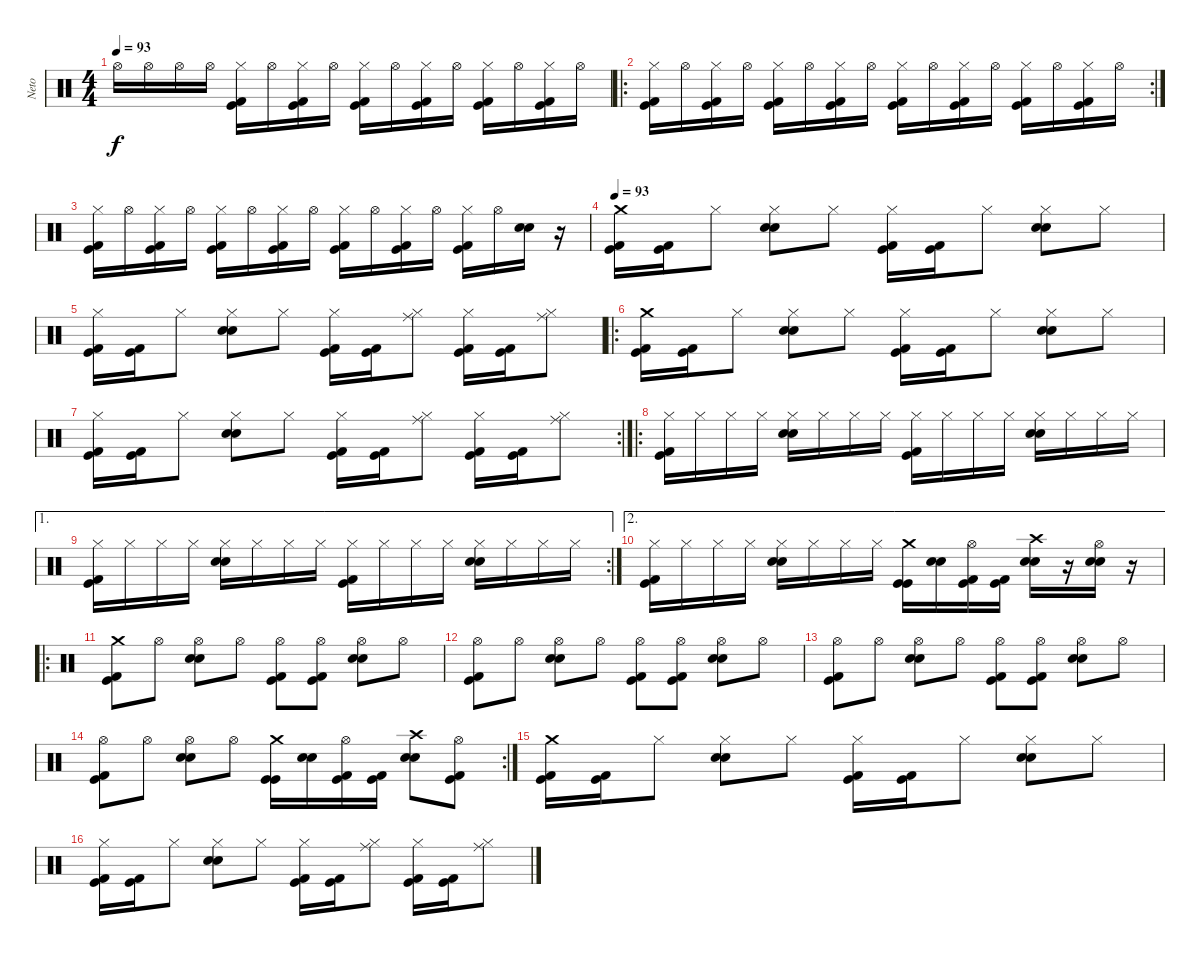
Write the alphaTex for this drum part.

\track ("Neto" "Neto") {instrument percussion}
\staff {score}
\articulation defaults
\ts (4 4)
\tempo 93
\tempo 77
\tempo 93
\clef neutral
\ks c "Hi-Hat (open)".16{dy f} "Hi-Hat (open)".16 "Hi-Hat (open)".16 "Hi-Hat (open)".16
("Hi-Hat (closed)" "Kick (hit)" "Kick (hit) 2").16 "Hi-Hat (open)".16 ("Hi-Hat (closed)" "Kick (hit)" "Kick (hit) 2").16 "Hi-Hat (open)".16 ("Hi-Hat (closed)" "Kick (hit)" "Kick (hit) 2").16 "Hi-Hat (open)".16 ("Hi-Hat (closed)" "Kick (hit)" "Kick (hit) 2").16 "Hi-Hat (open)".16 ("Hi-Hat (closed)" "Kick (hit)" "Kick (hit) 2").16 "Hi-Hat (open)".16 ("Hi-Hat (closed)" "Kick (hit)" "Kick (hit) 2").16 "Hi-Hat (open)".16 |
\ro
\rc 2
("Hi-Hat (closed)" "Kick (hit)" "Kick (hit) 2").16 "Hi-Hat (open)".16 ("Hi-Hat (closed)" "Kick (hit)" "Kick (hit) 2").16 "Hi-Hat (open)".16 ("Hi-Hat (closed)" "Kick (hit)" "Kick (hit) 2").16 "Hi-Hat (open)".16 ("Hi-Hat (closed)" "Kick (hit)" "Kick (hit) 2").16 "Hi-Hat (open)".16 ("Hi-Hat (closed)" "Kick (hit)" "Kick (hit) 2").16 "Hi-Hat (open)".16 ("Hi-Hat (closed)" "Kick (hit)" "Kick (hit) 2").16 "Hi-Hat (open)".16 ("Hi-Hat (closed)" "Kick (hit)" "Kick (hit) 2").16 "Hi-Hat (open)".16 ("Hi-Hat (closed)" "Kick (hit)" "Kick (hit) 2").16 "Hi-Hat (open)".16 |
("Hi-Hat (closed)" "Kick (hit)" "Kick (hit) 2").16 "Hi-Hat (open)".16 ("Hi-Hat (closed)" "Kick (hit)" "Kick (hit) 2").16 "Hi-Hat (open)".16 ("Hi-Hat (closed)" "Kick (hit)" "Kick (hit) 2").16 "Hi-Hat (open)".16 ("Hi-Hat (closed)" "Kick (hit)" "Kick (hit) 2").16 "Hi-Hat (open)".16 ("Hi-Hat (closed)" "Kick (hit)" "Kick (hit) 2").16 "Hi-Hat (open)".16 ("Hi-Hat (closed)" "Kick (hit)" "Kick (hit) 2").16 "Hi-Hat (open)".16 ("Hi-Hat (closed)" "Kick (hit)" "Kick (hit) 2").16 "Hi-Hat (open)".16 ("Snare (hit) 2" "Snare (hit) 2").16 r.16 |
\tempo 93
("Crash medium (hit)" "Kick (hit)" "Kick (hit) 2").16 ("Kick (hit)" "Kick (hit) 2").16 "Hi-Hat (closed)".8 ("Hi-Hat (closed)" "Snare (hit) 2" "Snare (hit) 2").8 "Hi-Hat (closed)".8 ("Hi-Hat (closed)" "Kick (hit)" "Kick (hit) 2").16 ("Kick (hit)" "Kick (hit) 2").16 "Hi-Hat (closed)".8 ("Hi-Hat (closed)" "Snare (hit) 2" "Snare (hit) 2").8 "Hi-Hat (closed)".8 |
("Hi-Hat (closed)" "Kick (hit)" "Kick (hit) 2").16 ("Kick (hit)" "Kick (hit) 2").16 "Hi-Hat (closed)".8 ("Hi-Hat (closed)" "Snare (hit) 2" "Snare (hit) 2").8 "Hi-Hat (closed)".8 ("Hi-Hat (closed)" "Kick (hit)" "Kick (hit) 2").16 ("Kick (hit)" "Kick (hit) 2").16 ("Hi-Hat (closed)" "Ride (middle)").8 ("Hi-Hat (closed)" "Kick (hit)" "Kick (hit) 2").16 ("Kick (hit)" "Kick (hit) 2").16 ("Hi-Hat (closed)" "Ride (middle)").8 |
\ro
("Crash medium (hit)" "Kick (hit)" "Kick (hit) 2").16 ("Kick (hit)" "Kick (hit) 2").16 "Hi-Hat (closed)".8 ("Hi-Hat (closed)" "Snare (hit) 2" "Snare (hit) 2").8 "Hi-Hat (closed)".8 ("Hi-Hat (closed)" "Kick (hit)" "Kick (hit) 2").16 ("Kick (hit)" "Kick (hit) 2").16 "Hi-Hat (closed)".8 ("Hi-Hat (closed)" "Snare (hit) 2" "Snare (hit) 2").8 "Hi-Hat (closed)".8 |
\rc 2
("Hi-Hat (closed)" "Kick (hit)" "Kick (hit) 2").16 ("Kick (hit)" "Kick (hit) 2").16 "Hi-Hat (closed)".8 ("Hi-Hat (closed)" "Snare (hit) 2" "Snare (hit) 2").8 "Hi-Hat (closed)".8 ("Hi-Hat (closed)" "Kick (hit)" "Kick (hit) 2").16 ("Kick (hit)" "Kick (hit) 2").16 ("Hi-Hat (closed)" "Ride (middle)").8 ("Hi-Hat (closed)" "Kick (hit)" "Kick (hit) 2").16 ("Kick (hit)" "Kick (hit) 2").16 ("Hi-Hat (closed)" "Ride (middle)").8 |
\ro
("Hi-Hat (closed)" "Kick (hit)" "Kick (hit) 2").16 "Hi-Hat (closed)".16 "Hi-Hat (closed)".16 "Hi-Hat (closed)".16 ("Hi-Hat (closed)" "Snare (hit) 2" "Snare (hit) 2").16 "Hi-Hat (closed)".16 "Hi-Hat (closed)".16 "Hi-Hat (closed)".16 ("Hi-Hat (closed)" "Kick (hit)" "Kick (hit) 2").16 "Hi-Hat (closed)".16 "Hi-Hat (closed)".16 "Hi-Hat (closed)".16 ("Hi-Hat (closed)" "Snare (hit) 2" "Snare (hit) 2").16 "Hi-Hat (closed)".16 "Hi-Hat (closed)".16 "Hi-Hat (closed)".16 |
\ae 1
\rc 2
("Hi-Hat (closed)" "Kick (hit)" "Kick (hit) 2").16 "Hi-Hat (closed)".16 "Hi-Hat (closed)".16 "Hi-Hat (closed)".16 ("Hi-Hat (closed)" "Snare (hit) 2" "Snare (hit) 2").16 "Hi-Hat (closed)".16 "Hi-Hat (closed)".16 "Hi-Hat (closed)".16 ("Hi-Hat (closed)" "Kick (hit)" "Kick (hit) 2").16 "Hi-Hat (closed)".16 "Hi-Hat (closed)".16 "Hi-Hat (closed)".16 ("Hi-Hat (closed)" "Snare (hit) 2" "Snare (hit) 2").16 "Hi-Hat (closed)".16 "Hi-Hat (closed)".16 "Hi-Hat (closed)".16 |
\ae 2
("Hi-Hat (closed)" "Kick (hit)" "Kick (hit) 2").16 "Hi-Hat (closed)".16 "Hi-Hat (closed)".16 "Hi-Hat (closed)".16 ("Hi-Hat (closed)" "Snare (hit) 2" "Snare (hit) 2").16 "Hi-Hat (closed)".16 "Hi-Hat (closed)".16 "Hi-Hat (closed)".16 ("Crash medium (hit)" "Kick (hit)" "Kick (hit)").16 ("Snare (hit) 2" "Snare (hit) 2").16 ("Hi-Hat (open)" "Kick (hit)" "Kick (hit) 2").16 ("Kick (hit)" "Kick (hit) 2").16 ("Crash high (hit)" "Snare (hit) 2" "Snare (hit) 2").16 r.16 ("Hi-Hat (open)" "Snare (hit) 2" "Snare (hit) 2").16 r.16 |
\ro
("Crash medium (hit)" "Kick (hit)" "Kick (hit) 2").8 "Hi-Hat (open)".8 ("Hi-Hat (open)" "Snare (hit) 2" "Snare (hit) 2").8 "Hi-Hat (open)".8 ("Hi-Hat (open)" "Kick (hit)" "Kick (hit) 2").8 ("Hi-Hat (open)" "Kick (hit)" "Kick (hit) 2").8 ("Hi-Hat (open)" "Snare (hit) 2" "Snare (hit) 2").8 "Hi-Hat (open)".8 |
("Hi-Hat (open)" "Kick (hit)" "Kick (hit) 2").8 "Hi-Hat (open)".8 ("Hi-Hat (open)" "Snare (hit) 2" "Snare (hit) 2").8 "Hi-Hat (open)".8 ("Hi-Hat (open)" "Kick (hit)" "Kick (hit) 2").8 ("Hi-Hat (open)" "Kick (hit)" "Kick (hit) 2").8 ("Hi-Hat (open)" "Snare (hit) 2" "Snare (hit) 2").8 "Hi-Hat (open)".8 |
("Hi-Hat (open)" "Kick (hit)" "Kick (hit) 2").8 "Hi-Hat (open)".8 ("Hi-Hat (open)" "Snare (hit) 2" "Snare (hit) 2").8 "Hi-Hat (open)".8 ("Hi-Hat (open)" "Kick (hit)" "Kick (hit) 2").8 ("Hi-Hat (open)" "Kick (hit)" "Kick (hit) 2").8 ("Hi-Hat (open)" "Snare (hit) 2" "Snare (hit) 2").8 "Hi-Hat (open)".8 |
\rc 2
("Hi-Hat (open)" "Kick (hit)" "Kick (hit) 2").8 "Hi-Hat (open)".8 ("Hi-Hat (open)" "Snare (hit) 2" "Snare (hit) 2").8 "Hi-Hat (open)".8 ("Crash medium (hit)" "Kick (hit)" "Kick (hit)").16 ("Snare (hit) 2" "Snare (hit) 2").16 ("Hi-Hat (open)" "Kick (hit)" "Kick (hit) 2").16 ("Kick (hit)" "Kick (hit) 2").16 ("Crash high (hit)" "Snare (hit) 2" "Snare (hit) 2").8 ("Hi-Hat (open)" "Kick (hit)" "Kick (hit) 2").8 |
("Crash medium (hit)" "Kick (hit)" "Kick (hit) 2").16 ("Kick (hit)" "Kick (hit) 2").16 "Hi-Hat (closed)".8 ("Hi-Hat (closed)" "Snare (hit) 2" "Snare (hit) 2").8 "Hi-Hat (closed)".8 ("Hi-Hat (closed)" "Kick (hit)" "Kick (hit) 2").16 ("Kick (hit)" "Kick (hit) 2").16 "Hi-Hat (closed)".8 ("Hi-Hat (closed)" "Snare (hit) 2" "Snare (hit) 2").8 "Hi-Hat (closed)".8 |
("Hi-Hat (closed)" "Kick (hit)" "Kick (hit) 2").16 ("Kick (hit)" "Kick (hit) 2").16 "Hi-Hat (closed)".8 ("Hi-Hat (closed)" "Snare (hit) 2" "Snare (hit) 2").8 "Hi-Hat (closed)".8 ("Hi-Hat (closed)" "Kick (hit)" "Kick (hit) 2").16 ("Kick (hit)" "Kick (hit) 2").16 ("Hi-Hat (closed)" "Ride (middle)").8 ("Hi-Hat (closed)" "Kick (hit)" "Kick (hit) 2").16 ("Kick (hit)" "Kick (hit) 2").16 ("Hi-Hat (closed)" "Ride (middle)").8
